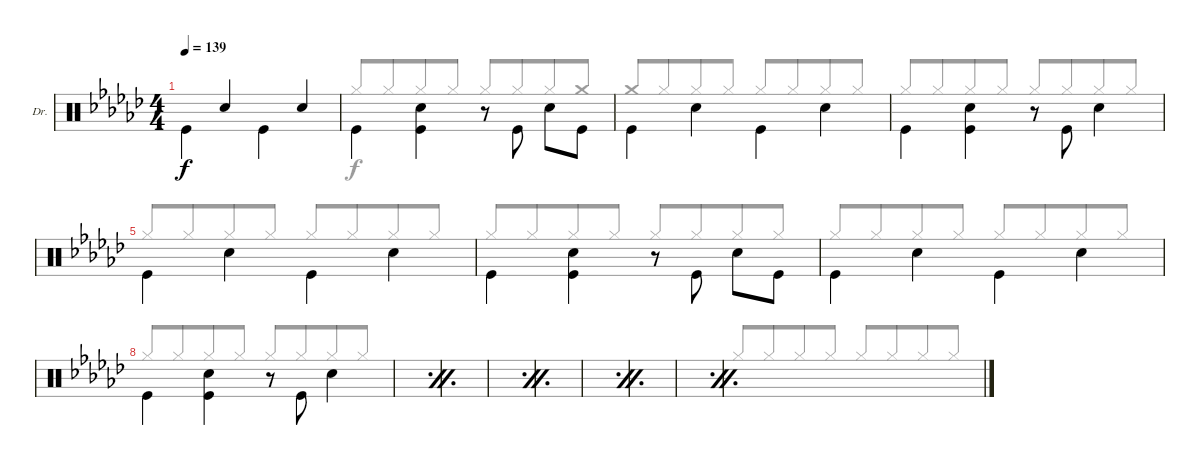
\bracketExtendMode groupsimilarinstruments
\firstSystemTrackNameOrientation horizontal
\otherSystemsTrackNameOrientation horizontal
\defaultBarNumberDisplay FirstOfSystem
\track ("Drums" "Dr.") {instrument percussion}
\staff {score}
\articulation defaults
\voice
\ts (4 4)
\tempo 139
\clef neutral
\ks gb "Kick (hit)".4{dy f beam invert} "Snare (hit) 2".4{beam invert} "Kick (hit)".4{beam invert} "Snare (hit) 2".4{beam invert}
|
"Kick (hit)".4{beam invert} ("Kick (hit)" "Snare (hit) 2").4{beam invert} r.8 "Kick (hit)".8{beam invert} "Snare (hit) 2".8{beam invert} "Kick (hit)".8 |
"Kick (hit)".4{beam invert} "Snare (hit) 2".4{beam invert} "Kick (hit)".4{beam invert} "Snare (hit) 2".4{beam invert} |
"Kick (hit)".4{beam invert} ("Kick (hit)" "Snare (hit) 2").4{beam invert} r.8 "Kick (hit)".8{beam invert} "Snare (hit) 2".4{beam invert} |
"Kick (hit)".4{beam invert} "Snare (hit) 2".4{beam invert} "Kick (hit)".4{beam invert} "Snare (hit) 2".4{beam invert} |
"Kick (hit)".4{beam invert} ("Kick (hit)" "Snare (hit) 2").4{beam invert} r.8 "Kick (hit)".8{beam invert} "Snare (hit) 2".8{beam invert} "Kick (hit)".8 |
"Kick (hit)".4{beam invert} "Snare (hit) 2".4{beam invert} "Kick (hit)".4{beam invert} "Snare (hit) 2".4{beam invert} |
"Kick (hit)".4{beam invert} ("Kick (hit)" "Snare (hit) 2").4{beam invert} r.8 "Kick (hit)".8{beam invert} "Snare (hit) 2".4{beam invert} |
\simile firstofdouble
|
\simile secondofdouble
|
\simile firstofdouble
|
\simile secondofdouble
|
\simile firstofdouble
|
\simile secondofdouble
|
\simile firstofdouble
|
\simile secondofdouble
\voice
\clef neutral
\ottava regular
\simile none
\ks gb "Hi-Hat (closed)".8{dy f beam invert} "Hi-Hat (closed)".8{beam merge} "Hi-Hat (closed)".8 "Hi-Hat (closed)".8 "Hi-Hat (closed)".8{beam invert} "Hi-Hat (closed)".8{beam merge} "Hi-Hat (closed)".8 "Hi-Hat (closed)".8
|
"Hi-Hat (closed)".8{beam invert beam merge} "Hi-Hat (closed)".8{beam merge} "Hi-Hat (closed)".8 "Hi-Hat (closed)".8 "Hi-Hat (closed)".8{beam invert} "Hi-Hat (closed)".8{beam merge} "Hi-Hat (closed)".8{beam merge} "Crash medium (hit)".8 |
"Crash medium (hit)".8{beam invert} "Hi-Hat (closed)".8{beam merge} "Hi-Hat (closed)".8 "Hi-Hat (closed)".8 "Hi-Hat (closed)".8{beam invert} "Hi-Hat (closed)".8{beam merge} "Hi-Hat (closed)".8 "Hi-Hat (closed)".8 |
"Hi-Hat (closed)".8{beam invert} "Hi-Hat (closed)".8{beam merge} "Hi-Hat (closed)".8 "Hi-Hat (closed)".8 "Hi-Hat (closed)".8{beam invert beam merge} "Hi-Hat (closed)".8{beam merge} "Hi-Hat (closed)".8{beam merge} "Hi-Hat (closed)".8 |
"Hi-Hat (closed)".8{beam invert} "Hi-Hat (closed)".8{beam merge} "Hi-Hat (closed)".8 "Hi-Hat (closed)".8 "Hi-Hat (closed)".8{beam invert} "Hi-Hat (closed)".8{beam merge} "Hi-Hat (closed)".8 "Hi-Hat (closed)".8 |
"Hi-Hat (closed)".8{beam invert beam merge} "Hi-Hat (closed)".8{beam merge} "Hi-Hat (closed)".8 "Hi-Hat (closed)".8 "Hi-Hat (closed)".8{beam invert} "Hi-Hat (closed)".8{beam merge} "Hi-Hat (closed)".8{beam merge} "Hi-Hat (closed)".8 |
"Hi-Hat (closed)".8{beam invert} "Hi-Hat (closed)".8{beam merge} "Hi-Hat (closed)".8 "Hi-Hat (closed)".8 "Hi-Hat (closed)".8{beam invert} "Hi-Hat (closed)".8{beam merge} "Hi-Hat (closed)".8 "Hi-Hat (closed)".8 |
"Hi-Hat (closed)".8{beam invert} "Hi-Hat (closed)".8{beam merge} "Hi-Hat (closed)".8 "Hi-Hat (closed)".8 "Hi-Hat (closed)".8{beam invert beam merge} "Hi-Hat (closed)".8{beam merge} "Hi-Hat (closed)".8{beam merge} "Hi-Hat (closed)".8 |
\simile firstofdouble
|
\simile secondofdouble
|
\simile firstofdouble
|
\simile secondofdouble
|
\simile firstofdouble
|
\simile secondofdouble
|
\simile firstofdouble
|
\simile secondofdouble
